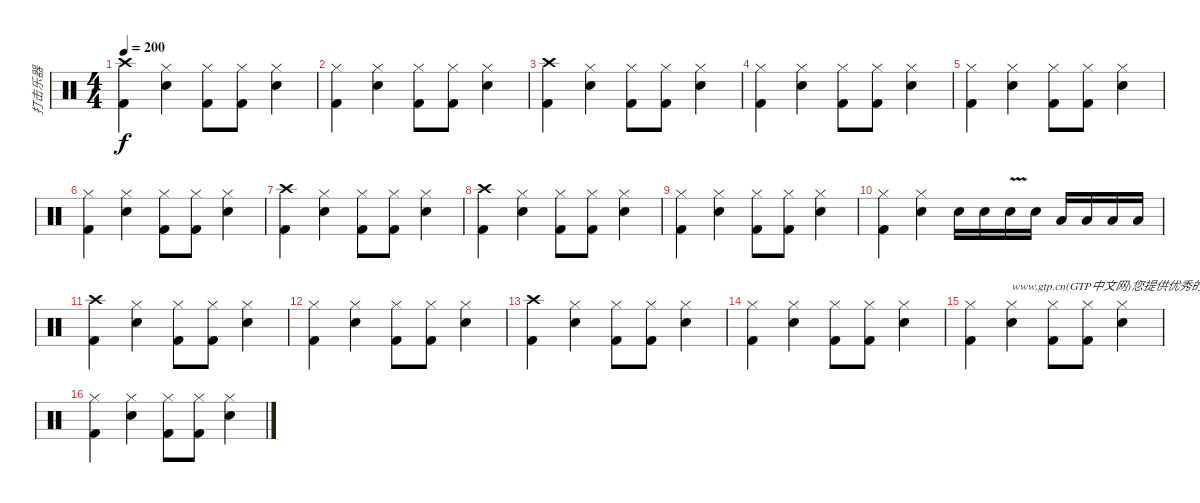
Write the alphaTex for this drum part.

\track ("打击乐器" "打击乐器") {instrument percussion}
\staff {score}
\articulation defaults
\ts (4 4)
\tempo 200
\clef neutral
\ks c
("Crash high (hit)" "Kick (hit) 2").4{dy f} ("Hi-Hat (closed)" "Snare (hit) 2").4 ("Hi-Hat (closed)" "Kick (hit) 2").8 ("Hi-Hat (closed)" "Kick (hit) 2").8 ("Hi-Hat (closed)" "Snare (hit) 2").4 |
("Hi-Hat (closed)" "Kick (hit) 2").4 ("Hi-Hat (closed)" "Snare (hit) 2").4 ("Hi-Hat (closed)" "Kick (hit) 2").8 ("Hi-Hat (closed)" "Kick (hit) 2").8 ("Hi-Hat (closed)" "Snare (hit) 2").4 |
("Crash high (hit)" "Kick (hit) 2").4 ("Hi-Hat (closed)" "Snare (hit) 2").4 ("Hi-Hat (closed)" "Kick (hit) 2").8 ("Hi-Hat (closed)" "Kick (hit) 2").8 ("Hi-Hat (closed)" "Snare (hit) 2").4 |
("Hi-Hat (closed)" "Kick (hit) 2").4 ("Hi-Hat (closed)" "Snare (hit) 2").4 ("Hi-Hat (closed)" "Kick (hit) 2").8 ("Hi-Hat (closed)" "Kick (hit) 2").8 ("Hi-Hat (closed)" "Snare (hit) 2").4 |
("Hi-Hat (closed)" "Kick (hit) 2").4 ("Hi-Hat (closed)" "Snare (hit) 2").4 ("Hi-Hat (closed)" "Kick (hit) 2").8 ("Hi-Hat (closed)" "Kick (hit) 2").8 ("Hi-Hat (closed)" "Snare (hit) 2").4 |
("Hi-Hat (closed)" "Kick (hit) 2").4 ("Hi-Hat (closed)" "Snare (hit) 2").4 ("Hi-Hat (closed)" "Kick (hit) 2").8 ("Hi-Hat (closed)" "Kick (hit) 2").8 ("Hi-Hat (closed)" "Snare (hit) 2").4 |
("Crash high (hit)" "Kick (hit) 2").4 ("Hi-Hat (closed)" "Snare (hit) 2").4 ("Hi-Hat (closed)" "Kick (hit) 2").8 ("Hi-Hat (closed)" "Kick (hit) 2").8 ("Hi-Hat (closed)" "Snare (hit) 2").4 |
("Crash high (hit)" "Kick (hit) 2").4 ("Hi-Hat (closed)" "Snare (hit) 2").4 ("Hi-Hat (closed)" "Kick (hit) 2").8 ("Hi-Hat (closed)" "Kick (hit) 2").8 ("Hi-Hat (closed)" "Snare (hit) 2").4 |
("Hi-Hat (closed)" "Kick (hit) 2").4 ("Hi-Hat (closed)" "Snare (hit) 2").4 ("Hi-Hat (closed)" "Kick (hit) 2").8 ("Hi-Hat (closed)" "Kick (hit) 2").8 ("Hi-Hat (closed)" "Snare (hit) 2").4 |
("Hi-Hat (closed)" "Kick (hit) 2").4 ("Hi-Hat (closed)" "Snare (hit) 2").4 "Snare (hit) 2".16 "Snare (hit) 2".16 "Snare (hit) 2"{v}.16 "Snare (hit) 2".16 "Low Floor Tom (hit)".16 "Low Floor Tom (hit)".16 "Low Tom (hit)".16 "Low Tom (hit)".16 |
("Crash high (hit)" "Kick (hit) 2").4 ("Hi-Hat (closed)" "Snare (hit) 2").4 ("Hi-Hat (closed)" "Kick (hit) 2").8 ("Hi-Hat (closed)" "Kick (hit) 2").8 ("Hi-Hat (closed)" "Snare (hit) 2").4 |
("Hi-Hat (closed)" "Kick (hit) 2").4 ("Hi-Hat (closed)" "Snare (hit) 2").4 ("Hi-Hat (closed)" "Kick (hit) 2").8 ("Hi-Hat (closed)" "Kick (hit) 2").8 ("Hi-Hat (closed)" "Snare (hit) 2").4 |
("Crash high (hit)" "Kick (hit) 2").4 ("Hi-Hat (closed)" "Snare (hit) 2").4 ("Hi-Hat (closed)" "Kick (hit) 2").8 ("Hi-Hat (closed)" "Kick (hit) 2").8 ("Hi-Hat (closed)" "Snare (hit) 2").4 |
("Hi-Hat (closed)" "Kick (hit) 2").4 ("Hi-Hat (closed)" "Snare (hit) 2").4 ("Hi-Hat (closed)" "Kick (hit) 2").8 ("Hi-Hat (closed)" "Kick (hit) 2").8 ("Hi-Hat (closed)" "Snare (hit) 2").4 |
("Hi-Hat (closed)" "Kick (hit) 2").4 ("Hi-Hat (closed)" "Snare (hit) 2").4{txt "www.gtp.cn(GTP中文网)您提供优秀的GTP"} ("Hi-Hat (closed)" "Kick (hit) 2").8 ("Hi-Hat (closed)" "Kick (hit) 2").8 ("Hi-Hat (closed)" "Snare (hit) 2").4 |
("Hi-Hat (closed)" "Kick (hit) 2").4 ("Hi-Hat (closed)" "Snare (hit) 2").4 ("Hi-Hat (closed)" "Kick (hit) 2").8 ("Hi-Hat (closed)" "Kick (hit) 2").8 ("Hi-Hat (closed)" "Snare (hit) 2").4
